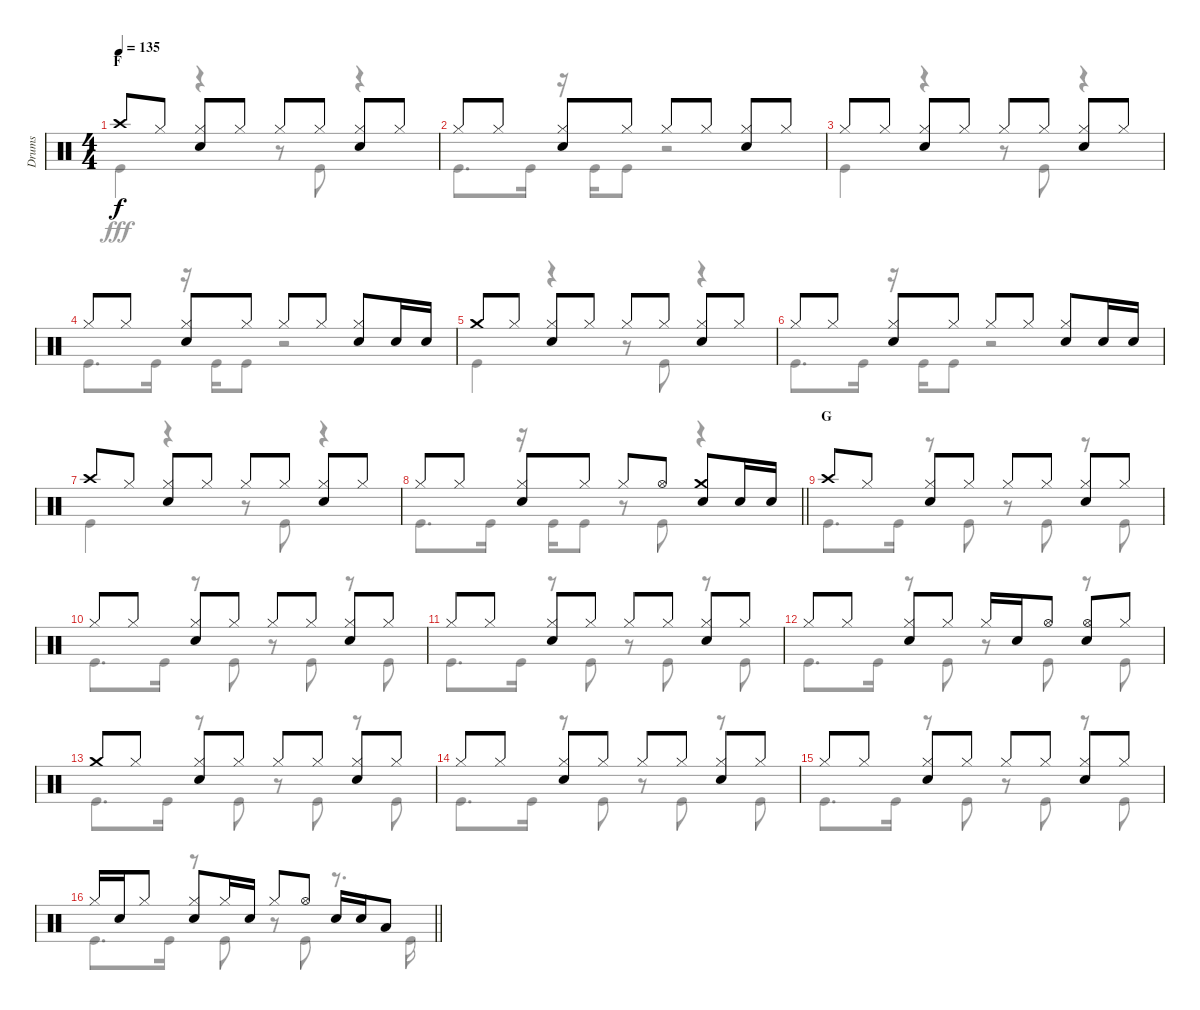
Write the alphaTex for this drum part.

\track ("Drums" "Drums") {instrument percussion}
\staff {score}
\articulation defaults
\voice
\ts (4 4)
\section ("" "F")
\tempo 135
\clef neutral
\ks c "Crash high (hit)".8{dy f} "Hi-Hat (closed)".8
("Hi-Hat (closed)" "Snare (hit) 2").8 "Hi-Hat (closed)".8 "Hi-Hat (closed)".8 "Hi-Hat (closed)".8 ("Hi-Hat (closed)" "Snare (hit) 2").8 "Hi-Hat (closed)".8 |
"Hi-Hat (closed)".8 "Hi-Hat (closed)".8 ("Hi-Hat (closed)" "Snare (hit) 2").8 "Hi-Hat (closed)".8 "Hi-Hat (closed)".8 "Hi-Hat (closed)".8 ("Hi-Hat (closed)" "Snare (hit) 2").8 "Hi-Hat (closed)".8 |
"Hi-Hat (closed)".8 "Hi-Hat (closed)".8 ("Hi-Hat (closed)" "Snare (hit) 2").8 "Hi-Hat (closed)".8 "Hi-Hat (closed)".8 "Hi-Hat (closed)".8 ("Hi-Hat (closed)" "Snare (hit) 2").8 "Hi-Hat (closed)".8 |
"Hi-Hat (closed)".8 "Hi-Hat (closed)".8 ("Hi-Hat (closed)" "Snare (hit) 2").8 "Hi-Hat (closed)".8 "Hi-Hat (closed)".8 "Hi-Hat (closed)".8 ("Hi-Hat (closed)" "Snare (hit) 2").8 "Snare (hit) 2".16 "Snare (hit) 2".16 |
"Crash medium (hit)".8 "Hi-Hat (closed)".8 ("Hi-Hat (closed)" "Snare (hit) 2").8 "Hi-Hat (closed)".8 "Hi-Hat (closed)".8 "Hi-Hat (closed)".8 ("Hi-Hat (closed)" "Snare (hit) 2").8 "Hi-Hat (closed)".8 |
"Hi-Hat (closed)".8 "Hi-Hat (closed)".8 ("Hi-Hat (closed)" "Snare (hit) 2").8 "Hi-Hat (closed)".8 "Hi-Hat (closed)".8 "Hi-Hat (closed)".8 ("Hi-Hat (closed)" "Snare (hit) 2").8 "Snare (hit) 2".16 "Snare (hit) 2".16 |
"Crash high (hit)".8 "Hi-Hat (closed)".8 ("Hi-Hat (closed)" "Snare (hit) 2").8 "Hi-Hat (closed)".8 "Hi-Hat (closed)".8 "Hi-Hat (closed)".8 ("Hi-Hat (closed)" "Snare (hit) 2").8 "Hi-Hat (closed)".8 |
\barLineRight lightlight "Hi-Hat (closed)".8 "Hi-Hat (closed)".8
("Hi-Hat (closed)" "Snare (hit) 2").8 "Hi-Hat (closed)".8 "Hi-Hat (closed)".8 "Hi-Hat (open)".8 ("Crash medium (hit)" "Snare (hit) 2").8 "Snare (hit) 2".16 "Snare (hit) 2".16 |
\section ("" "G")
"Crash high (hit)".8 "Hi-Hat (closed)".8 ("Hi-Hat (closed)" "Snare (hit) 2").8 "Hi-Hat (closed)".8 "Hi-Hat (closed)".8 "Hi-Hat (closed)".8 ("Hi-Hat (closed)" "Snare (hit) 2").8 "Hi-Hat (closed)".8 |
"Hi-Hat (closed)".8 "Hi-Hat (closed)".8 ("Hi-Hat (closed)" "Snare (hit) 2").8 "Hi-Hat (closed)".8 "Hi-Hat (closed)".8 "Hi-Hat (closed)".8 ("Hi-Hat (closed)" "Snare (hit) 2").8 "Hi-Hat (closed)".8 |
"Hi-Hat (closed)".8 "Hi-Hat (closed)".8 ("Hi-Hat (closed)" "Snare (hit) 2").8 "Hi-Hat (closed)".8 "Hi-Hat (closed)".8 "Hi-Hat (closed)".8 ("Hi-Hat (closed)" "Snare (hit) 2").8 "Hi-Hat (closed)".8 |
"Hi-Hat (closed)".8 "Hi-Hat (closed)".8 ("Hi-Hat (closed)" "Snare (hit) 2").8 "Hi-Hat (closed)".8 "Hi-Hat (closed)".16 "Snare (hit) 2".16 "Hi-Hat (open)".8 ("Hi-Hat (open)" "Snare (hit) 2").8 "Hi-Hat (closed)".8 |
"Crash medium (hit)".8 "Hi-Hat (closed)".8 ("Hi-Hat (closed)" "Snare (hit) 2").8 "Hi-Hat (closed)".8 "Hi-Hat (closed)".8 "Hi-Hat (closed)".8 ("Hi-Hat (closed)" "Snare (hit) 2").8 "Hi-Hat (closed)".8 |
"Hi-Hat (closed)".8 "Hi-Hat (closed)".8 ("Hi-Hat (closed)" "Snare (hit) 2").8 "Hi-Hat (closed)".8 "Hi-Hat (closed)".8 "Hi-Hat (closed)".8 ("Hi-Hat (closed)" "Snare (hit) 2").8 "Hi-Hat (closed)".8 |
"Hi-Hat (closed)".8 "Hi-Hat (closed)".8 ("Hi-Hat (closed)" "Snare (hit) 2").8 "Hi-Hat (closed)".8 "Hi-Hat (closed)".8 "Hi-Hat (closed)".8 ("Hi-Hat (closed)" "Snare (hit) 2").8 "Hi-Hat (closed)".8 |
\barLineRight lightlight "Hi-Hat (closed)".16 "Snare (hit) 2".16 "Hi-Hat (closed)".8
("Hi-Hat (closed)" "Snare (hit) 2").8 "Hi-Hat (closed)".16 "Snare (hit) 2".16 "Hi-Hat (closed)".8 "Hi-Hat (open)".8 "Snare (hit) 2".16 "Snare (hit) 2".16 "Low Tom (hit)".8
\voice
\clef neutral
\ottava regular
\simile none
\ks c "Kick (hit)".4{dy fff}
r.4 r.8 "Kick (hit)".8 r.4 |
"Kick (hit)".8{d} "Kick (hit)".16 r.16 "Kick (hit)".16 "Kick (hit)".8 r.2 |
"Kick (hit)".4 r.4 r.8 "Kick (hit)".8 r.4 |
"Kick (hit)".8{d} "Kick (hit)".16 r.16 "Kick (hit)".16 "Kick (hit)".8 r.2 |
"Kick (hit)".4 r.4 r.8 "Kick (hit)".8 r.4 |
"Kick (hit)".8{d} "Kick (hit)".16 r.16 "Kick (hit)".16 "Kick (hit)".8 r.2 |
"Kick (hit)".4 r.4 r.8 "Kick (hit)".8 r.4 |
\barLineRight lightlight "Kick (hit)".8{d} "Kick (hit)".16
r.16 "Kick (hit)".16 "Kick (hit)".8 r.8 "Kick (hit)".8 r.4 |
"Kick (hit)".8{d} "Kick (hit)".16 r.8 "Kick (hit)".8 r.8 "Kick (hit)".8 r.8 "Kick (hit)".8 |
"Kick (hit)".8{d} "Kick (hit)".16 r.8 "Kick (hit)".8 r.8 "Kick (hit)".8 r.8 "Kick (hit)".8 |
"Kick (hit)".8{d} "Kick (hit)".16 r.8 "Kick (hit)".8 r.8 "Kick (hit)".8 r.8 "Kick (hit)".8 |
"Kick (hit)".8{d} "Kick (hit)".16 r.8 "Kick (hit)".8 r.8 "Kick (hit)".8 r.8 "Kick (hit)".8 |
"Kick (hit)".8{d} "Kick (hit)".16 r.8 "Kick (hit)".8 r.8 "Kick (hit)".8 r.8 "Kick (hit)".8 |
"Kick (hit)".8{d} "Kick (hit)".16 r.8 "Kick (hit)".8 r.8 "Kick (hit)".8 r.8 "Kick (hit)".8 |
"Kick (hit)".8{d} "Kick (hit)".16 r.8 "Kick (hit)".8 r.8 "Kick (hit)".8 r.8 "Kick (hit)".8 |
\barLineRight lightlight "Kick (hit)".8{d} "Kick (hit)".16
r.8 "Kick (hit)".8 r.8 "Kick (hit)".8 r.8{d} "Kick (hit)".16
